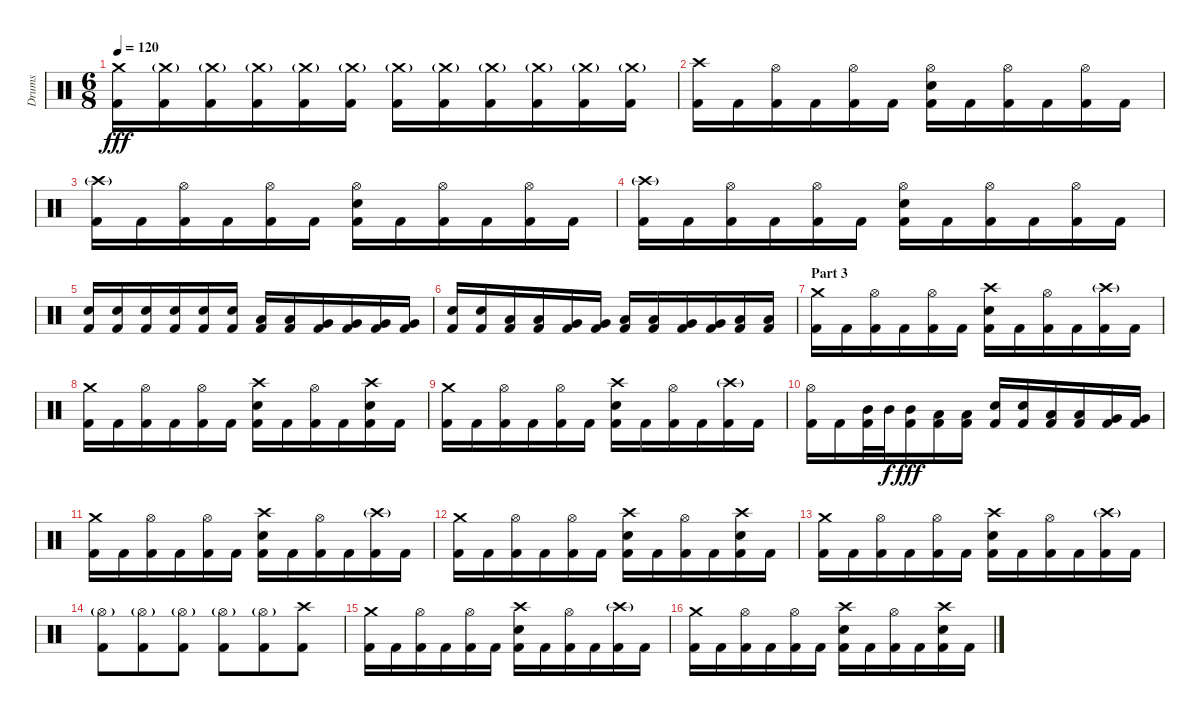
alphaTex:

\track ("Drums" "Drums") {instrument percussion}
\staff {score}
\articulation defaults
\ts (6 8)
\tempo 120
\clef neutral
\ks c
("Crash medium (hit)" "Kick (hit) 2").16{dy fff} ("Crash medium (hit)"{g} "Kick (hit) 2").16 ("Crash medium (hit)"{g} "Kick (hit) 2").16 ("Crash medium (hit)"{g} "Kick (hit) 2").16 ("Crash medium (hit)"{g} "Kick (hit) 2").16 ("Crash medium (hit)"{g} "Kick (hit) 2").16 ("Crash medium (hit)"{g} "Kick (hit) 2").16 ("Crash medium (hit)"{g} "Kick (hit) 2").16 ("Crash medium (hit)"{g} "Kick (hit) 2").16 ("Crash medium (hit)"{g} "Kick (hit) 2").16 ("Crash medium (hit)"{g} "Kick (hit) 2").16 ("Crash medium (hit)"{g} "Kick (hit) 2").16 |
("Crash high (hit)" "Kick (hit) 2").16 "Kick (hit) 2".16 ("Hi-Hat (open)" "Kick (hit) 2").16 "Kick (hit) 2".16 ("Hi-Hat (open)" "Kick (hit) 2").16 "Kick (hit) 2".16 ("Hi-Hat (open)" "Electric Snare (hit)" "Kick (hit) 2").16 "Kick (hit) 2".16 ("Hi-Hat (open)" "Kick (hit) 2").16 "Kick (hit) 2".16 ("Hi-Hat (open)" "Kick (hit) 2").16 "Kick (hit) 2".16 |
("Crash high (hit)"{g} "Kick (hit) 2").16 "Kick (hit) 2".16 ("Hi-Hat (open)" "Kick (hit) 2").16 "Kick (hit) 2".16 ("Hi-Hat (open)" "Kick (hit) 2").16 "Kick (hit) 2".16 ("Hi-Hat (open)" "Electric Snare (hit)" "Kick (hit) 2").16 "Kick (hit) 2".16 ("Hi-Hat (open)" "Kick (hit) 2").16 "Kick (hit) 2".16 ("Hi-Hat (open)" "Kick (hit) 2").16 "Kick (hit) 2".16 |
("Crash high (hit)"{g} "Kick (hit) 2").16 "Kick (hit) 2".16 ("Hi-Hat (open)" "Kick (hit) 2").16 "Kick (hit) 2".16 ("Hi-Hat (open)" "Kick (hit) 2").16 "Kick (hit) 2".16 ("Hi-Hat (open)" "Electric Snare (hit)" "Kick (hit) 2").16 "Kick (hit) 2".16 ("Hi-Hat (open)" "Kick (hit) 2").16 "Kick (hit) 2".16 ("Hi-Hat (open)" "Kick (hit) 2").16 "Kick (hit) 2".16 |
("Electric Snare (hit)" "Kick (hit) 2").16 ("Electric Snare (hit)" "Kick (hit) 2").16 ("Electric Snare (hit)" "Kick (hit) 2").16 ("Electric Snare (hit)" "Kick (hit) 2").16 ("Electric Snare (hit)" "Kick (hit) 2").16 ("Electric Snare (hit)" "Kick (hit) 2").16 ("Low Tom (hit)" "Kick (hit) 2").16 ("Low Tom (hit)" "Kick (hit) 2").16 ("Very Low Tom (hit)" "Kick (hit) 2").16 ("Very Low Tom (hit)" "Kick (hit) 2").16 ("Very Low Tom (hit)" "Kick (hit) 2").16 ("Very Low Tom (hit)" "Kick (hit) 2").16 |
("Electric Snare (hit)" "Kick (hit) 2").16 ("Electric Snare (hit)" "Kick (hit) 2").16 ("Low Tom (hit)" "Kick (hit) 2").16 ("Low Tom (hit)" "Kick (hit) 2").16 ("Very Low Tom (hit)" "Kick (hit) 2").16 ("Very Low Tom (hit)" "Kick (hit) 2").16 ("Low Tom (hit)" "Kick (hit) 2").16 ("Low Tom (hit)" "Kick (hit) 2").16 ("Very Low Tom (hit)" "Kick (hit) 2").16 ("Very Low Tom (hit)" "Kick (hit) 2").16 ("Low Floor Tom (hit)" "Kick (hit) 2").16 ("Low Floor Tom (hit)" "Kick (hit) 2").16 |
\section ("" "Part 3")
("Crash medium (hit)" "Kick (hit) 2").16 "Kick (hit) 2".16 ("Hi-Hat (open)" "Kick (hit) 2").16 "Kick (hit) 2".16 ("Hi-Hat (open)" "Kick (hit) 2").16 "Kick (hit) 2".16 ("Crash high (hit)" "Electric Snare (hit)" "Kick (hit) 2").16 "Kick (hit) 2".16 ("Hi-Hat (open)" "Kick (hit) 2").16 "Kick (hit) 2".16 ("Crash high (hit)"{g} "Kick (hit) 2").16 "Kick (hit) 2".16 |
("Crash medium (hit)" "Kick (hit) 2").16 "Kick (hit) 2".16 ("Hi-Hat (open)" "Kick (hit) 2").16 "Kick (hit) 2".16 ("Hi-Hat (open)" "Kick (hit) 2").16 "Kick (hit) 2".16 ("Crash high (hit)" "Electric Snare (hit)" "Kick (hit) 2").16 "Kick (hit) 2".16 ("Hi-Hat (open)" "Kick (hit) 2").16 "Kick (hit) 2".16 ("Crash high (hit)" "Electric Snare (hit)" "Kick (hit) 2").16 "Kick (hit) 2".16 |
("Crash medium (hit)" "Kick (hit) 2").16 "Kick (hit) 2".16 ("Hi-Hat (open)" "Kick (hit) 2").16 "Kick (hit) 2".16 ("Hi-Hat (open)" "Kick (hit) 2").16 "Kick (hit) 2".16 ("Crash high (hit)" "Electric Snare (hit)" "Kick (hit) 2").16 "Kick (hit) 2".16 ("Hi-Hat (open)" "Kick (hit) 2").16 "Kick (hit) 2".16 ("Crash high (hit)"{g} "Kick (hit) 2").16 "Kick (hit) 2".16 |
("Hi-Hat (open)" "Kick (hit) 2").16 "Kick (hit) 2".16 ("Mid Tom (hit)" "Kick (hit) 2").32 "Mid Tom (hit)".32{dy f} ("Mid Tom (hit)" "Kick (hit) 2").16{dy fff} ("Low Tom (hit)" "Kick (hit) 2").16 ("Low Tom (hit)" "Kick (hit) 2").16 ("Electric Snare (hit)" "Kick (hit) 2").16 ("Electric Snare (hit)" "Kick (hit) 2").16 ("Low Tom (hit)" "Kick (hit) 2").16 ("Low Tom (hit)" "Kick (hit) 2").16 ("Very Low Tom (hit)" "Kick (hit) 2").16 ("Very Low Tom (hit)" "Kick (hit) 2").16 |
("Crash medium (hit)" "Kick (hit) 2").16 "Kick (hit) 2".16 ("Hi-Hat (open)" "Kick (hit) 2").16 "Kick (hit) 2".16 ("Hi-Hat (open)" "Kick (hit) 2").16 "Kick (hit) 2".16 ("Crash high (hit)" "Electric Snare (hit)" "Kick (hit) 2").16 "Kick (hit) 2".16 ("Hi-Hat (open)" "Kick (hit) 2").16 "Kick (hit) 2".16 ("Crash high (hit)"{g} "Kick (hit) 2").16 "Kick (hit) 2".16 |
("Crash medium (hit)" "Kick (hit) 2").16 "Kick (hit) 2".16 ("Hi-Hat (open)" "Kick (hit) 2").16 "Kick (hit) 2".16 ("Hi-Hat (open)" "Kick (hit) 2").16 "Kick (hit) 2".16 ("Crash high (hit)" "Electric Snare (hit)" "Kick (hit) 2").16 "Kick (hit) 2".16 ("Hi-Hat (open)" "Kick (hit) 2").16 "Kick (hit) 2".16 ("Crash high (hit)" "Electric Snare (hit)" "Kick (hit) 2").16 "Kick (hit) 2".16 |
("Crash medium (hit)" "Kick (hit) 2").16 "Kick (hit) 2".16 ("Hi-Hat (open)" "Kick (hit) 2").16 "Kick (hit) 2".16 ("Hi-Hat (open)" "Kick (hit) 2").16 "Kick (hit) 2".16 ("Crash high (hit)" "Electric Snare (hit)" "Kick (hit) 2").16 "Kick (hit) 2".16 ("Hi-Hat (open)" "Kick (hit) 2").16 "Kick (hit) 2".16 ("Crash high (hit)"{g} "Kick (hit) 2").16 "Kick (hit) 2".16 |
("Hi-Hat (open)"{g} "Kick (hit) 2").8 ("Hi-Hat (open)"{g} "Kick (hit) 2").8 ("Hi-Hat (open)"{g} "Kick (hit) 2").8 ("Hi-Hat (open)"{g} "Kick (hit) 2").8 ("Hi-Hat (open)"{g} "Kick (hit) 2").8 ("Crash high (hit)" "Kick (hit) 2").8 |
("Crash medium (hit)" "Kick (hit) 2").16 "Kick (hit) 2".16 ("Hi-Hat (open)" "Kick (hit) 2").16 "Kick (hit) 2".16 ("Hi-Hat (open)" "Kick (hit) 2").16 "Kick (hit) 2".16 ("Crash high (hit)" "Electric Snare (hit)" "Kick (hit) 2").16 "Kick (hit) 2".16 ("Hi-Hat (open)" "Kick (hit) 2").16 "Kick (hit) 2".16 ("Crash high (hit)"{g} "Kick (hit) 2").16 "Kick (hit) 2".16 |
("Crash medium (hit)" "Kick (hit) 2").16 "Kick (hit) 2".16 ("Hi-Hat (open)" "Kick (hit) 2").16 "Kick (hit) 2".16 ("Hi-Hat (open)" "Kick (hit) 2").16 "Kick (hit) 2".16 ("Crash high (hit)" "Electric Snare (hit)" "Kick (hit) 2").16 "Kick (hit) 2".16 ("Hi-Hat (open)" "Kick (hit) 2").16 "Kick (hit) 2".16 ("Crash high (hit)" "Electric Snare (hit)" "Kick (hit) 2").16 "Kick (hit) 2".16
